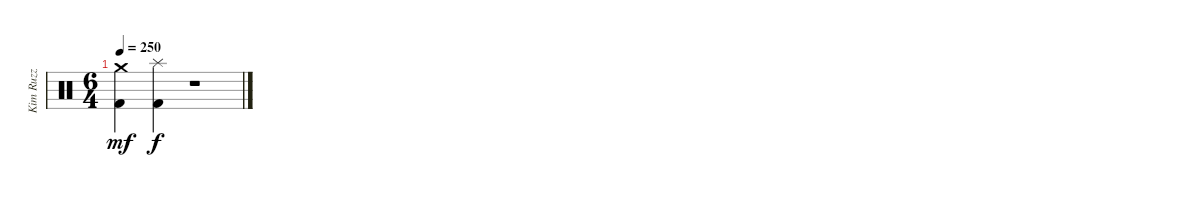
\track ("Kim Ruzz" "Kim Ruzz") {instrument percussion}
\staff {score}
\articulation defaults
\ts (6 4)
\tempo 250
\clef neutral
\ks c
("Kick (hit) 2" "Crash medium (hit)").4{dy mf} ("Kick (hit) 2" "Splash (hit)").4{dy f} r.1
